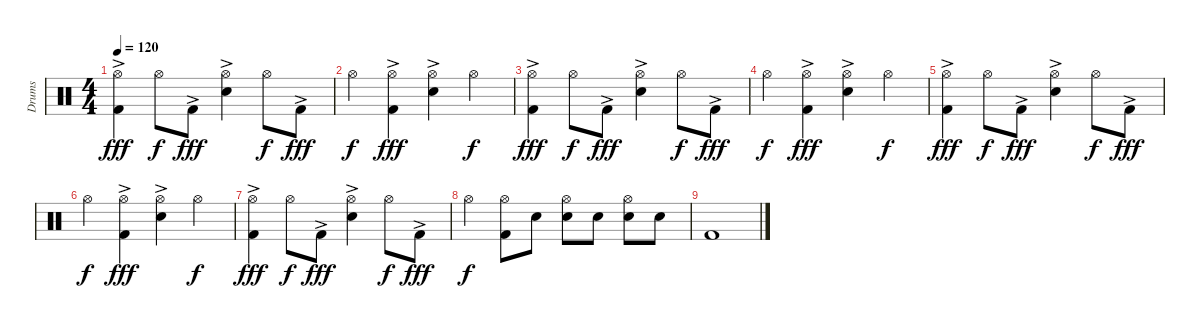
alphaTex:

\track ("Drums" "Drums") {instrument percussion}
\staff {score}
\articulation defaults
\ts (4 4)
\tempo 120
\clef neutral
\ks c
("Hi-Hat (open)" "Kick (hit) 2"{ac}).4{dy fff} "Hi-Hat (open)".8{dy f} "Kick (hit) 2"{ac}.8{dy fff} ("Hi-Hat (open)" "Electric Snare (hit)"{ac}).4 "Hi-Hat (open)".8{dy f} "Kick (hit) 2"{ac}.8{dy fff} |
"Hi-Hat (open)".4{dy f} ("Hi-Hat (open)" "Kick (hit) 2"{ac}).4{dy fff} ("Hi-Hat (open)" "Electric Snare (hit)"{ac}).4 "Hi-Hat (open)".4{dy f} |
("Hi-Hat (open)" "Kick (hit) 2"{ac}).4{dy fff} "Hi-Hat (open)".8{dy f} "Kick (hit) 2"{ac}.8{dy fff} ("Hi-Hat (open)" "Electric Snare (hit)"{ac}).4 "Hi-Hat (open)".8{dy f} "Kick (hit) 2"{ac}.8{dy fff} |
"Hi-Hat (open)".4{dy f} ("Hi-Hat (open)" "Kick (hit) 2"{ac}).4{dy fff} ("Hi-Hat (open)" "Electric Snare (hit)"{ac}).4 "Hi-Hat (open)".4{dy f} |
("Hi-Hat (open)" "Kick (hit) 2"{ac}).4{dy fff} "Hi-Hat (open)".8{dy f} "Kick (hit) 2"{ac}.8{dy fff} ("Hi-Hat (open)" "Electric Snare (hit)"{ac}).4 "Hi-Hat (open)".8{dy f} "Kick (hit) 2"{ac}.8{dy fff} |
"Hi-Hat (open)".4{dy f} ("Hi-Hat (open)" "Kick (hit) 2"{ac}).4{dy fff} ("Hi-Hat (open)" "Electric Snare (hit)"{ac}).4 "Hi-Hat (open)".4{dy f} |
("Hi-Hat (open)" "Kick (hit) 2"{ac}).4{dy fff} "Hi-Hat (open)".8{dy f} "Kick (hit) 2"{ac}.8{dy fff} ("Hi-Hat (open)" "Electric Snare (hit)"{ac}).4 "Hi-Hat (open)".8{dy f} "Kick (hit) 2"{ac}.8{dy fff} |
"Hi-Hat (open)".4{dy f} ("Hi-Hat (open)" "Kick (hit) 2").8 "Electric Snare (hit)".8 ("Hi-Hat (open)" "Electric Snare (hit)").8 "Electric Snare (hit)".8 ("Hi-Hat (open)" "Electric Snare (hit)").8 "Electric Snare (hit)".8 |
"Kick (hit) 2".1
